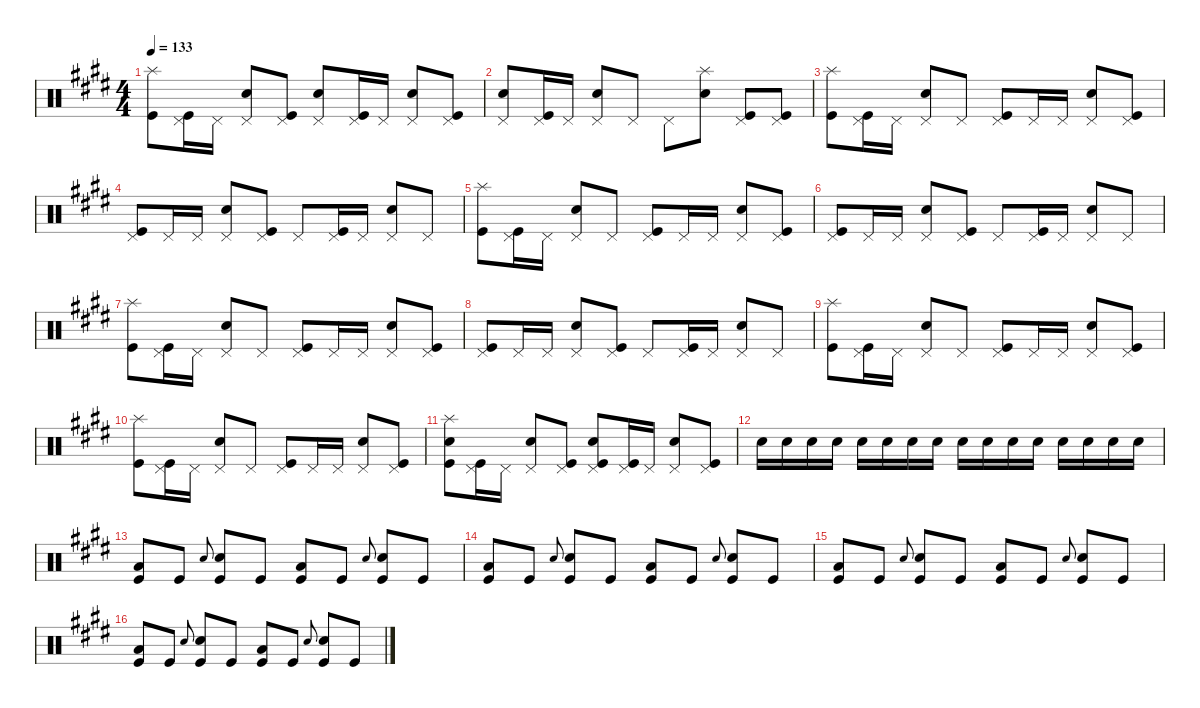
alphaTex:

\defaultSystemsLayout 4
\hideDynamics
\bracketExtendMode nobrackets
\singleTrackTrackNamePolicy hidden
\multiTrackTrackNamePolicy hidden
\firstSystemTrackNameMode fullname
\firstSystemTrackNameOrientation horizontal
\otherSystemsTrackNameOrientation horizontal
\track ("RVP" "drm.") {instrument percussion}
\staff {score}
\articulation defaults
\ts (4 4)
\tempo 133
\clef neutral
\ks e
("Splash (hit)"{acc forcenatural} "Kick (hit)"{acc forcenatural}).8{dy f beam Down} ("Pedal Hi-Hat (hit)"{acc forcenatural} "Kick (hit)"{acc forcenatural}).16{beam Down} "Pedal Hi-Hat (hit)"{acc forcenatural}.16{beam Down} ("Snare (hit) 2"{acc forcenatural} "Pedal Hi-Hat (hit)"{acc forcenatural}).8{dy fff beam Up} ("Pedal Hi-Hat (hit)"{acc forcenatural} "Kick (hit)"{acc forcenatural}).8{dy f beam Up} ("Snare (hit) 2"{acc forcenatural} "Pedal Hi-Hat (hit)"{acc forcenatural}).8{dy fff beam Up} ("Pedal Hi-Hat (hit)"{acc forcenatural} "Kick (hit)"{acc forcenatural}).16{dy f beam Up} "Pedal Hi-Hat (hit)"{acc forcenatural}.16{beam Up} ("Snare (hit) 2"{acc forcenatural} "Pedal Hi-Hat (hit)"{acc forcenatural}).8{dy fff beam Up} ("Pedal Hi-Hat (hit)"{acc forcenatural} "Kick (hit)"{acc forcenatural}).8{dy f beam Up} |
("Snare (hit) 2"{acc forcenatural} "Pedal Hi-Hat (hit)"{acc forcenatural}).8{dy fff beam Up} ("Pedal Hi-Hat (hit)"{acc forcenatural} "Kick (hit)"{acc forcenatural}).16{dy f beam Up} "Pedal Hi-Hat (hit)"{acc forcenatural}.16{beam Up} ("Snare (hit) 2"{acc forcenatural} "Pedal Hi-Hat (hit)"{acc forcenatural}).8{dy fff beam Up} "Pedal Hi-Hat (hit)"{acc forcenatural}.8{dy f beam Up} "Pedal Hi-Hat (hit)"{acc forcenatural}.8{beam Down} ("Snare (hit) 2"{acc forcenatural} "Splash (hit)"{acc forcenatural}).8{dy fff beam Down} ("Pedal Hi-Hat (hit)"{acc forcenatural} "Kick (hit)"{acc forcenatural}).8{dy f beam Up} ("Pedal Hi-Hat (hit)"{acc forcenatural} "Kick (hit)"{acc forcenatural}).8{beam Up} |
("Splash (hit)"{acc forcenatural} "Kick (hit)"{acc forcenatural}).8{beam Down} ("Pedal Hi-Hat (hit)"{acc forcenatural} "Kick (hit)"{acc forcenatural}).16{beam Down} "Pedal Hi-Hat (hit)"{acc forcenatural}.16{beam Down} ("Snare (hit) 2"{acc forcenatural} "Pedal Hi-Hat (hit)"{acc forcenatural}).8{dy fff beam Up} "Pedal Hi-Hat (hit)"{acc forcenatural}.8{dy f beam Up} ("Pedal Hi-Hat (hit)"{acc forcenatural} "Kick (hit)"{acc forcenatural}).8{beam Up} "Pedal Hi-Hat (hit)"{acc forcenatural}.16{beam Up} "Pedal Hi-Hat (hit)"{acc forcenatural}.16{beam Up} ("Snare (hit) 2"{acc forcenatural} "Pedal Hi-Hat (hit)"{acc forcenatural}).8{dy fff beam Up} ("Pedal Hi-Hat (hit)"{acc forcenatural} "Kick (hit)"{acc forcenatural}).8{dy f beam Up} |
("Pedal Hi-Hat (hit)"{acc forcenatural} "Kick (hit)"{acc forcenatural}).8{beam Up} "Pedal Hi-Hat (hit)"{acc forcenatural}.16{beam Up} "Pedal Hi-Hat (hit)"{acc forcenatural}.16{beam Up} ("Snare (hit) 2"{acc forcenatural} "Pedal Hi-Hat (hit)"{acc forcenatural}).8{dy fff beam Up} ("Pedal Hi-Hat (hit)"{acc forcenatural} "Kick (hit)"{acc forcenatural}).8{dy f beam Up} "Pedal Hi-Hat (hit)"{acc forcenatural}.8{beam Up} ("Pedal Hi-Hat (hit)"{acc forcenatural} "Kick (hit)"{acc forcenatural}).16{beam Up} "Pedal Hi-Hat (hit)"{acc forcenatural}.16{beam Up} ("Snare (hit) 2"{acc forcenatural} "Pedal Hi-Hat (hit)"{acc forcenatural}).8{dy fff beam Up} "Pedal Hi-Hat (hit)"{acc forcenatural}.8{dy f beam Up} |
("Splash (hit)"{acc forcenatural} "Kick (hit)"{acc forcenatural}).8{beam Down} ("Pedal Hi-Hat (hit)"{acc forcenatural} "Kick (hit)"{acc forcenatural}).16{beam Down} "Pedal Hi-Hat (hit)"{acc forcenatural}.16{beam Down} ("Snare (hit) 2"{acc forcenatural} "Pedal Hi-Hat (hit)"{acc forcenatural}).8{dy fff beam Up} "Pedal Hi-Hat (hit)"{acc forcenatural}.8{dy f beam Up} ("Pedal Hi-Hat (hit)"{acc forcenatural} "Kick (hit)"{acc forcenatural}).8{beam Up} "Pedal Hi-Hat (hit)"{acc forcenatural}.16{beam Up} "Pedal Hi-Hat (hit)"{acc forcenatural}.16{beam Up} ("Snare (hit) 2"{acc forcenatural} "Pedal Hi-Hat (hit)"{acc forcenatural}).8{dy fff beam Up} ("Pedal Hi-Hat (hit)"{acc forcenatural} "Kick (hit)"{acc forcenatural}).8{dy f beam Up} |
("Pedal Hi-Hat (hit)"{acc forcenatural} "Kick (hit)"{acc forcenatural}).8{beam Up} "Pedal Hi-Hat (hit)"{acc forcenatural}.16{beam Up} "Pedal Hi-Hat (hit)"{acc forcenatural}.16{beam Up} ("Snare (hit) 2"{acc forcenatural} "Pedal Hi-Hat (hit)"{acc forcenatural}).8{dy fff beam Up} ("Pedal Hi-Hat (hit)"{acc forcenatural} "Kick (hit)"{acc forcenatural}).8{dy f beam Up} "Pedal Hi-Hat (hit)"{acc forcenatural}.8{beam Up} ("Pedal Hi-Hat (hit)"{acc forcenatural} "Kick (hit)"{acc forcenatural}).16{beam Up} "Pedal Hi-Hat (hit)"{acc forcenatural}.16{beam Up} ("Snare (hit) 2"{acc forcenatural} "Pedal Hi-Hat (hit)"{acc forcenatural}).8{dy fff beam Up} "Pedal Hi-Hat (hit)"{acc forcenatural}.8{dy f beam Up} |
("Splash (hit)"{acc forcenatural} "Kick (hit)"{acc forcenatural}).8{beam Down} ("Pedal Hi-Hat (hit)"{acc forcenatural} "Kick (hit)"{acc forcenatural}).16{beam Down} "Pedal Hi-Hat (hit)"{acc forcenatural}.16{beam Down} ("Snare (hit) 2"{acc forcenatural} "Pedal Hi-Hat (hit)"{acc forcenatural}).8{dy fff beam Up} "Pedal Hi-Hat (hit)"{acc forcenatural}.8{dy f beam Up} ("Pedal Hi-Hat (hit)"{acc forcenatural} "Kick (hit)"{acc forcenatural}).8{beam Up} "Pedal Hi-Hat (hit)"{acc forcenatural}.16{beam Up} "Pedal Hi-Hat (hit)"{acc forcenatural}.16{beam Up} ("Snare (hit) 2"{acc forcenatural} "Pedal Hi-Hat (hit)"{acc forcenatural}).8{dy fff beam Up} ("Pedal Hi-Hat (hit)"{acc forcenatural} "Kick (hit)"{acc forcenatural}).8{dy f beam Up} |
("Pedal Hi-Hat (hit)"{acc forcenatural} "Kick (hit)"{acc forcenatural}).8{beam Up} "Pedal Hi-Hat (hit)"{acc forcenatural}.16{beam Up} "Pedal Hi-Hat (hit)"{acc forcenatural}.16{beam Up} ("Snare (hit) 2"{acc forcenatural} "Pedal Hi-Hat (hit)"{acc forcenatural}).8{dy fff beam Up} ("Pedal Hi-Hat (hit)"{acc forcenatural} "Kick (hit)"{acc forcenatural}).8{dy f beam Up} "Pedal Hi-Hat (hit)"{acc forcenatural}.8{beam Up} ("Pedal Hi-Hat (hit)"{acc forcenatural} "Kick (hit)"{acc forcenatural}).16{beam Up} "Pedal Hi-Hat (hit)"{acc forcenatural}.16{beam Up} ("Snare (hit) 2"{acc forcenatural} "Pedal Hi-Hat (hit)"{acc forcenatural}).8{dy fff beam Up} "Pedal Hi-Hat (hit)"{acc forcenatural}.8{dy f beam Up} |
("Splash (hit)"{acc forcenatural} "Kick (hit)"{acc forcenatural}).8{beam Down} ("Pedal Hi-Hat (hit)"{acc forcenatural} "Kick (hit)"{acc forcenatural}).16{beam Down} "Pedal Hi-Hat (hit)"{acc forcenatural}.16{beam Down} ("Snare (hit) 2"{acc forcenatural} "Pedal Hi-Hat (hit)"{acc forcenatural}).8{dy fff beam Up} "Pedal Hi-Hat (hit)"{acc forcenatural}.8{dy f beam Up} ("Pedal Hi-Hat (hit)"{acc forcenatural} "Kick (hit)"{acc forcenatural}).8{beam Up} "Pedal Hi-Hat (hit)"{acc forcenatural}.16{beam Up} "Pedal Hi-Hat (hit)"{acc forcenatural}.16{beam Up} ("Snare (hit) 2"{acc forcenatural} "Pedal Hi-Hat (hit)"{acc forcenatural}).8{dy fff beam Up} ("Pedal Hi-Hat (hit)"{acc forcenatural} "Kick (hit)"{acc forcenatural}).8{dy f beam Up} |
("Splash (hit)"{acc forcenatural} "Kick (hit)"{acc forcenatural}).8{beam Down} ("Pedal Hi-Hat (hit)"{acc forcenatural} "Kick (hit)"{acc forcenatural}).16{beam Down} "Pedal Hi-Hat (hit)"{acc forcenatural}.16{beam Down} ("Snare (hit) 2"{acc forcenatural} "Pedal Hi-Hat (hit)"{acc forcenatural}).8{dy fff beam Up} "Pedal Hi-Hat (hit)"{acc forcenatural}.8{dy f beam Up} ("Pedal Hi-Hat (hit)"{acc forcenatural} "Kick (hit)"{acc forcenatural}).8{beam Up} "Pedal Hi-Hat (hit)"{acc forcenatural}.16{beam Up} "Pedal Hi-Hat (hit)"{acc forcenatural}.16{beam Up} ("Snare (hit) 2"{acc forcenatural} "Pedal Hi-Hat (hit)"{acc forcenatural}).8{dy fff beam Up} ("Pedal Hi-Hat (hit)"{acc forcenatural} "Kick (hit)"{acc forcenatural}).8{dy f beam Up} |
("Snare (hit) 2"{acc forcenatural} "Splash (hit)"{acc forcenatural} "Kick (hit)"{acc forcenatural}).8{dy fff beam Down} ("Pedal Hi-Hat (hit)"{acc forcenatural} "Kick (hit)"{acc forcenatural}).16{dy f beam Down} "Pedal Hi-Hat (hit)"{acc forcenatural}.16{beam Down} ("Snare (hit) 2"{acc forcenatural} "Pedal Hi-Hat (hit)"{acc forcenatural}).8{dy fff beam Up} ("Pedal Hi-Hat (hit)"{acc forcenatural} "Kick (hit)"{acc forcenatural}).8{dy f beam Up} ("Snare (hit) 2"{acc forcenatural} "Pedal Hi-Hat (hit)"{acc forcenatural} "Kick (hit)"{acc forcenatural}).8{dy fff beam Up} ("Pedal Hi-Hat (hit)"{acc forcenatural} "Kick (hit)"{acc forcenatural}).16{dy f beam Up} "Pedal Hi-Hat (hit)"{acc forcenatural}.16{beam Up} ("Snare (hit) 2"{acc forcenatural} "Pedal Hi-Hat (hit)"{acc forcenatural}).8{dy fff beam Up} ("Pedal Hi-Hat (hit)"{acc forcenatural} "Kick (hit)"{acc forcenatural}).8{dy f beam Up} |
"Snare (hit) 2"{acc forcenatural}.16{beam Down} "Snare (hit) 2"{acc forcenatural}.16{beam Down} "Snare (hit) 2"{acc forcenatural}.16{beam Down} "Snare (hit) 2"{acc forcenatural}.16{beam Down} "Snare (hit) 2"{acc forcenatural}.16{beam Down} "Snare (hit) 2"{acc forcenatural}.16{beam Down} "Snare (hit) 2"{acc forcenatural}.16{beam Down} "Snare (hit) 2"{acc forcenatural}.16{beam Down} "Snare (hit) 2"{acc forcenatural}.16{beam Down} "Snare (hit) 2"{acc forcenatural}.16{beam Down} "Snare (hit) 2"{acc forcenatural}.16{beam Down} "Snare (hit) 2"{acc forcenatural}.16{beam Down} "Snare (hit) 2"{acc forcenatural}.16{beam Down} "Snare (hit) 2"{acc forcenatural}.16{beam Down} "Snare (hit) 2"{acc forcenatural}.16{beam Down} "Snare (hit) 2"{acc forcenatural}.16{beam Down} |
("Low Floor Tom (hit)"{acc forcenatural} "Kick (hit)"{acc forcenatural}).8{beam Up} "Kick (hit)"{acc forcenatural}.8{dy fff beam Up} "Snare (hit) 2"{acc forcenatural}.8{gr onbeat dy ff beam Up} ("Snare (hit) 2"{acc forcenatural} "Kick (hit)"{acc forcenatural}).8{dy fff beam Up} "Kick (hit)"{acc forcenatural}.8{beam Up} ("Low Floor Tom (hit)"{acc forcenatural} "Kick (hit)"{acc forcenatural}).8{dy f beam Up} "Kick (hit)"{acc forcenatural}.8{dy fff beam Up} "Snare (hit) 2"{acc forcenatural}.8{gr onbeat dy ff beam Up} ("Snare (hit) 2"{acc forcenatural} "Kick (hit)"{acc forcenatural}).8{dy fff beam Up} "Kick (hit)"{acc forcenatural}.8{beam Up} |
("Low Floor Tom (hit)"{acc forcenatural} "Kick (hit)"{acc forcenatural}).8{dy f beam Up} "Kick (hit)"{acc forcenatural}.8{dy fff beam Up} "Snare (hit) 2"{acc forcenatural}.8{gr onbeat dy ff beam Up} ("Snare (hit) 2"{acc forcenatural} "Kick (hit)"{acc forcenatural}).8{dy fff beam Up} "Kick (hit)"{acc forcenatural}.8{beam Up} ("Low Floor Tom (hit)"{acc forcenatural} "Kick (hit)"{acc forcenatural}).8{dy f beam Up} "Kick (hit)"{acc forcenatural}.8{dy fff beam Up} "Snare (hit) 2"{acc forcenatural}.8{gr onbeat dy ff beam Up} ("Snare (hit) 2"{acc forcenatural} "Kick (hit)"{acc forcenatural}).8{dy fff beam Up} "Kick (hit)"{acc forcenatural}.8{beam Up} |
("Low Floor Tom (hit)"{acc forcenatural} "Kick (hit)"{acc forcenatural}).8{dy f beam Up} "Kick (hit)"{acc forcenatural}.8{dy fff beam Up} "Snare (hit) 2"{acc forcenatural}.8{gr onbeat dy ff beam Up} ("Snare (hit) 2"{acc forcenatural} "Kick (hit)"{acc forcenatural}).8{dy fff beam Up} "Kick (hit)"{acc forcenatural}.8{beam Up} ("Low Floor Tom (hit)"{acc forcenatural} "Kick (hit)"{acc forcenatural}).8{dy f beam Up} "Kick (hit)"{acc forcenatural}.8{dy fff beam Up} "Snare (hit) 2"{acc forcenatural}.8{gr onbeat dy ff beam Up} ("Snare (hit) 2"{acc forcenatural} "Kick (hit)"{acc forcenatural}).8{dy fff beam Up} "Kick (hit)"{acc forcenatural}.8{beam Up} |
("Low Floor Tom (hit)"{acc forcenatural} "Kick (hit)"{acc forcenatural}).8{dy f beam Up} "Kick (hit)"{acc forcenatural}.8{dy fff beam Up} "Snare (hit) 2"{acc forcenatural}.8{gr onbeat dy ff beam Up} ("Snare (hit) 2"{acc forcenatural} "Kick (hit)"{acc forcenatural}).8{dy fff beam Up} "Kick (hit)"{acc forcenatural}.8{beam Up} ("Low Floor Tom (hit)"{acc forcenatural} "Kick (hit)"{acc forcenatural}).8{dy f beam Up} "Kick (hit)"{acc forcenatural}.8{dy fff beam Up} "Snare (hit) 2"{acc forcenatural}.8{gr onbeat dy ff beam Up} ("Snare (hit) 2"{acc forcenatural} "Kick (hit)"{acc forcenatural}).8{dy fff beam Up} "Kick (hit)"{acc forcenatural}.8{beam Up}
